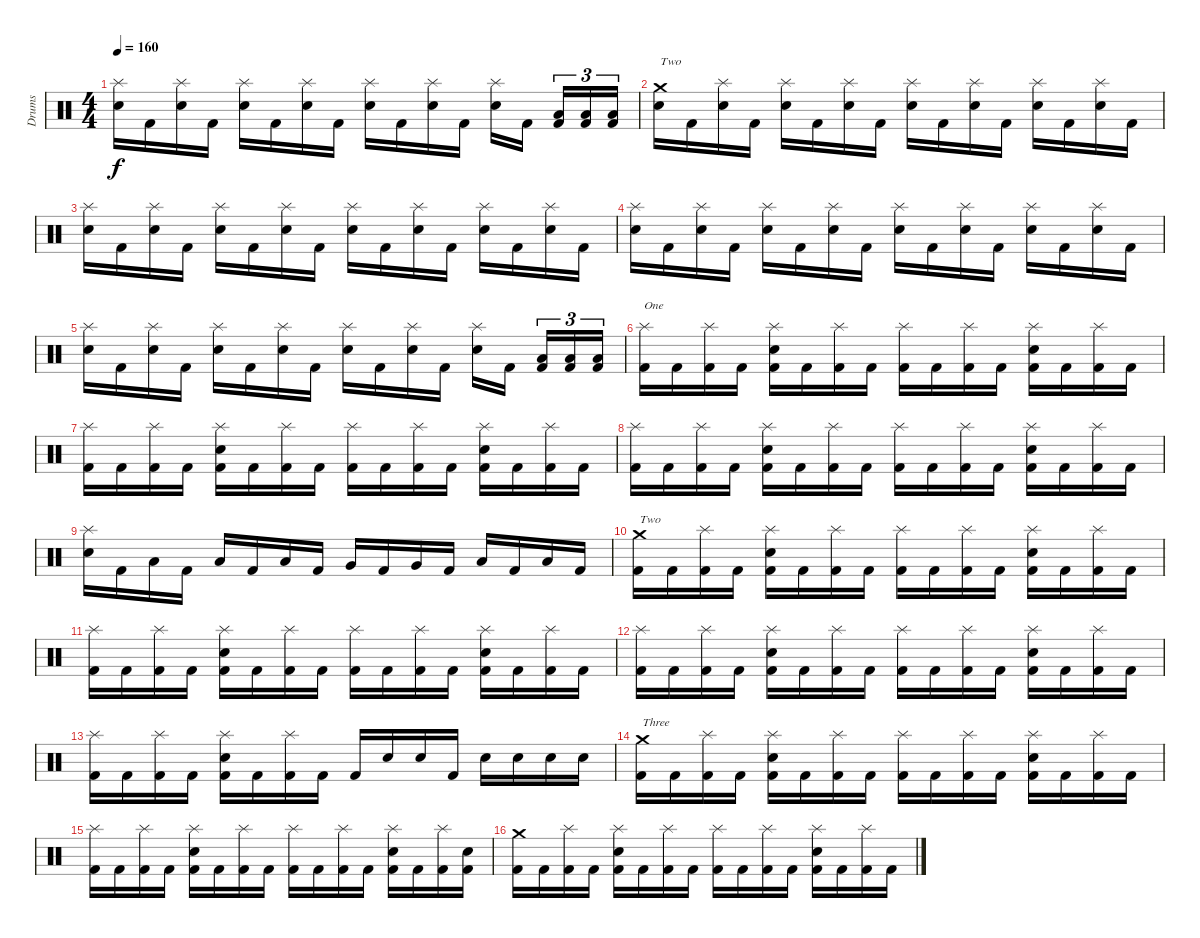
\track ("Drums" "Drums") {instrument percussion}
\staff {score}
\articulation defaults
\ts (4 4)
\tempo 160
\clef neutral
\ks c
("Splash (hit)" "Snare (hit) 2").16{dy f} "Kick (hit) 2".16 ("Splash (hit)" "Snare (hit) 2").16 "Kick (hit) 2".16 ("Splash (hit)" "Snare (hit) 2").16 "Kick (hit) 2".16 ("Splash (hit)" "Snare (hit) 2").16 "Kick (hit) 2".16 ("Splash (hit)" "Snare (hit) 2").16 "Kick (hit) 2".16 ("Splash (hit)" "Snare (hit) 2").16 "Kick (hit) 2".16 ("Splash (hit)" "Snare (hit) 2").16 "Kick (hit) 2".16{beam splitsecondary} ("Low Tom (hit)" "Kick (hit) 2").16{tu (3 2)} ("Low Tom (hit)" "Kick (hit) 2").16{tu (3 2)} ("Low Tom (hit)" "Kick (hit) 2").16{tu (3 2)} |
("Crash medium (hit)" "Snare (hit) 2").16{txt "Two"} "Kick (hit) 2".16 ("Splash (hit)" "Snare (hit) 2").16 "Kick (hit) 2".16 ("Splash (hit)" "Snare (hit) 2").16 "Kick (hit) 2".16 ("Splash (hit)" "Snare (hit) 2").16 "Kick (hit) 2".16 ("Splash (hit)" "Snare (hit) 2").16 "Kick (hit) 2".16 ("Splash (hit)" "Snare (hit) 2").16 "Kick (hit) 2".16 ("Splash (hit)" "Snare (hit) 2").16 "Kick (hit) 2".16 ("Splash (hit)" "Snare (hit) 2").16 "Kick (hit) 2".16 |
("Splash (hit)" "Snare (hit) 2").16 "Kick (hit) 2".16 ("Splash (hit)" "Snare (hit) 2").16 "Kick (hit) 2".16 ("Splash (hit)" "Snare (hit) 2").16 "Kick (hit) 2".16 ("Splash (hit)" "Snare (hit) 2").16 "Kick (hit) 2".16 ("Splash (hit)" "Snare (hit) 2").16 "Kick (hit) 2".16 ("Splash (hit)" "Snare (hit) 2").16 "Kick (hit) 2".16 ("Splash (hit)" "Snare (hit) 2").16 "Kick (hit) 2".16 ("Splash (hit)" "Snare (hit) 2").16 "Kick (hit) 2".16 |
("Splash (hit)" "Snare (hit) 2").16 "Kick (hit) 2".16 ("Splash (hit)" "Snare (hit) 2").16 "Kick (hit) 2".16 ("Splash (hit)" "Snare (hit) 2").16 "Kick (hit) 2".16 ("Splash (hit)" "Snare (hit) 2").16 "Kick (hit) 2".16 ("Splash (hit)" "Snare (hit) 2").16 "Kick (hit) 2".16 ("Splash (hit)" "Snare (hit) 2").16 "Kick (hit) 2".16 ("Splash (hit)" "Snare (hit) 2").16 "Kick (hit) 2".16 ("Splash (hit)" "Snare (hit) 2").16 "Kick (hit) 2".16 |
("Splash (hit)" "Snare (hit) 2").16 "Kick (hit) 2".16 ("Splash (hit)" "Snare (hit) 2").16 "Kick (hit) 2".16 ("Splash (hit)" "Snare (hit) 2").16 "Kick (hit) 2".16 ("Splash (hit)" "Snare (hit) 2").16 "Kick (hit) 2".16 ("Splash (hit)" "Snare (hit) 2").16 "Kick (hit) 2".16 ("Splash (hit)" "Snare (hit) 2").16 "Kick (hit) 2".16 ("Splash (hit)" "Snare (hit) 2").16 "Kick (hit) 2".16{beam splitsecondary} ("Low Tom (hit)" "Kick (hit) 2").16{tu (3 2)} ("Low Tom (hit)" "Kick (hit) 2").16{tu (3 2)} ("Low Tom (hit)" "Kick (hit) 2").16{tu (3 2)} |
("Splash (hit)" "Kick (hit) 2").16{txt "One"} "Kick (hit) 2".16 ("Splash (hit)" "Kick (hit) 2").16 "Kick (hit) 2".16 ("Splash (hit)" "Snare (hit) 2" "Kick (hit) 2").16 "Kick (hit) 2".16 ("Splash (hit)" "Kick (hit) 2").16 "Kick (hit) 2".16 ("Splash (hit)" "Kick (hit) 2").16 "Kick (hit) 2".16 ("Splash (hit)" "Kick (hit) 2").16 "Kick (hit) 2".16 ("Splash (hit)" "Snare (hit) 2" "Kick (hit) 2").16 "Kick (hit) 2".16 ("Splash (hit)" "Kick (hit) 2").16 "Kick (hit) 2".16 |
("Splash (hit)" "Kick (hit) 2").16 "Kick (hit) 2".16 ("Splash (hit)" "Kick (hit) 2").16 "Kick (hit) 2".16 ("Splash (hit)" "Snare (hit) 2" "Kick (hit) 2").16 "Kick (hit) 2".16 ("Splash (hit)" "Kick (hit) 2").16 "Kick (hit) 2".16 ("Splash (hit)" "Kick (hit) 2").16 "Kick (hit) 2".16 ("Splash (hit)" "Kick (hit) 2").16 "Kick (hit) 2".16 ("Splash (hit)" "Snare (hit) 2" "Kick (hit) 2").16 "Kick (hit) 2".16 ("Splash (hit)" "Kick (hit) 2").16 "Kick (hit) 2".16 |
("Splash (hit)" "Kick (hit) 2").16 "Kick (hit) 2".16 ("Splash (hit)" "Kick (hit) 2").16 "Kick (hit) 2".16 ("Splash (hit)" "Snare (hit) 2" "Kick (hit) 2").16 "Kick (hit) 2".16 ("Splash (hit)" "Kick (hit) 2").16 "Kick (hit) 2".16 ("Splash (hit)" "Kick (hit) 2").16 "Kick (hit) 2".16 ("Splash (hit)" "Kick (hit) 2").16 "Kick (hit) 2".16 ("Splash (hit)" "Snare (hit) 2" "Kick (hit) 2").16 "Kick (hit) 2".16 ("Splash (hit)" "Kick (hit) 2").16 "Kick (hit) 2".16 |
("Splash (hit)" "Snare (hit) 2").16 "Kick (hit) 2".16 "Low Tom (hit)".16 "Kick (hit) 2".16 "Low Tom (hit)".16 "Kick (hit) 2".16 "Low Tom (hit)".16 "Kick (hit) 2".16 "Very Low Tom (hit)".16 "Kick (hit) 2".16 "Very Low Tom (hit)".16 "Kick (hit) 2".16 "Low Floor Tom (hit)".16 "Kick (hit) 2".16 "Low Floor Tom (hit)".16 "Kick (hit) 2".16 |
("Crash medium (hit)" "Kick (hit) 2").16{txt "Two"} "Kick (hit) 2".16 ("Splash (hit)" "Kick (hit) 2").16 "Kick (hit) 2".16 ("Splash (hit)" "Snare (hit) 2" "Kick (hit) 2").16 "Kick (hit) 2".16 ("Splash (hit)" "Kick (hit) 2").16 "Kick (hit) 2".16 ("Splash (hit)" "Kick (hit) 2").16 "Kick (hit) 2".16 ("Splash (hit)" "Kick (hit) 2").16 "Kick (hit) 2".16 ("Splash (hit)" "Snare (hit) 2" "Kick (hit) 2").16 "Kick (hit) 2".16 ("Splash (hit)" "Kick (hit) 2").16 "Kick (hit) 2".16 |
("Splash (hit)" "Kick (hit) 2").16 "Kick (hit) 2".16 ("Splash (hit)" "Kick (hit) 2").16 "Kick (hit) 2".16 ("Splash (hit)" "Snare (hit) 2" "Kick (hit) 2").16 "Kick (hit) 2".16 ("Splash (hit)" "Kick (hit) 2").16 "Kick (hit) 2".16 ("Splash (hit)" "Kick (hit) 2").16 "Kick (hit) 2".16 ("Splash (hit)" "Kick (hit) 2").16 "Kick (hit) 2".16 ("Splash (hit)" "Snare (hit) 2" "Kick (hit) 2").16 "Kick (hit) 2".16 ("Splash (hit)" "Kick (hit) 2").16 "Kick (hit) 2".16 |
("Splash (hit)" "Kick (hit) 2").16 "Kick (hit) 2".16 ("Splash (hit)" "Kick (hit) 2").16 "Kick (hit) 2".16 ("Splash (hit)" "Snare (hit) 2" "Kick (hit) 2").16 "Kick (hit) 2".16 ("Splash (hit)" "Kick (hit) 2").16 "Kick (hit) 2".16 ("Splash (hit)" "Kick (hit) 2").16 "Kick (hit) 2".16 ("Splash (hit)" "Kick (hit) 2").16 "Kick (hit) 2".16 ("Splash (hit)" "Snare (hit) 2" "Kick (hit) 2").16 "Kick (hit) 2".16 ("Splash (hit)" "Kick (hit) 2").16 "Kick (hit) 2".16 |
("Splash (hit)" "Kick (hit) 2").16 "Kick (hit) 2".16 ("Splash (hit)" "Kick (hit) 2").16 "Kick (hit) 2".16 ("Splash (hit)" "Snare (hit) 2" "Kick (hit) 2").16 "Kick (hit) 2".16 ("Splash (hit)" "Kick (hit) 2").16 "Kick (hit) 2".16 "Kick (hit) 2".16 "Snare (hit) 2".16 "Snare (hit) 2".16 "Kick (hit) 2".16 "Snare (hit) 2".16 "Snare (hit) 2".16 "Snare (hit) 2".16 "Snare (hit) 2".16 |
("Crash medium (hit)" "Kick (hit) 2").16{txt "Three"} "Kick (hit) 2".16 ("Splash (hit)" "Kick (hit) 2").16 "Kick (hit) 2".16 ("Splash (hit)" "Snare (hit) 2" "Kick (hit) 2").16 "Kick (hit) 2".16 ("Splash (hit)" "Kick (hit) 2").16 "Kick (hit) 2".16 ("Splash (hit)" "Kick (hit) 2").16 "Kick (hit) 2".16 ("Splash (hit)" "Kick (hit) 2").16 "Kick (hit) 2".16 ("Splash (hit)" "Snare (hit) 2" "Kick (hit) 2").16 "Kick (hit) 2".16 ("Splash (hit)" "Kick (hit) 2").16 "Kick (hit) 2".16 |
("Splash (hit)" "Kick (hit) 2").16 "Kick (hit) 2".16 ("Splash (hit)" "Kick (hit) 2").16 "Kick (hit) 2".16 ("Splash (hit)" "Snare (hit) 2" "Kick (hit) 2").16 "Kick (hit) 2".16 ("Splash (hit)" "Kick (hit) 2").16 "Kick (hit) 2".16 ("Splash (hit)" "Kick (hit) 2").16 "Kick (hit) 2".16 ("Splash (hit)" "Kick (hit) 2").16 "Kick (hit) 2".16 ("Splash (hit)" "Snare (hit) 2" "Kick (hit) 2").16 "Kick (hit) 2".16 ("Splash (hit)" "Kick (hit) 2").16 ("Snare (hit) 2" "Kick (hit) 2").16 |
("Crash medium (hit)" "Kick (hit) 2").16 "Kick (hit) 2".16 ("Splash (hit)" "Kick (hit) 2").16 "Kick (hit) 2".16 ("Splash (hit)" "Snare (hit) 2" "Kick (hit) 2").16 "Kick (hit) 2".16 ("Splash (hit)" "Kick (hit) 2").16 "Kick (hit) 2".16 ("Splash (hit)" "Kick (hit) 2").16 "Kick (hit) 2".16 ("Splash (hit)" "Kick (hit) 2").16 "Kick (hit) 2".16 ("Splash (hit)" "Snare (hit) 2" "Kick (hit) 2").16 "Kick (hit) 2".16 ("Splash (hit)" "Kick (hit) 2").16 "Kick (hit) 2".16
